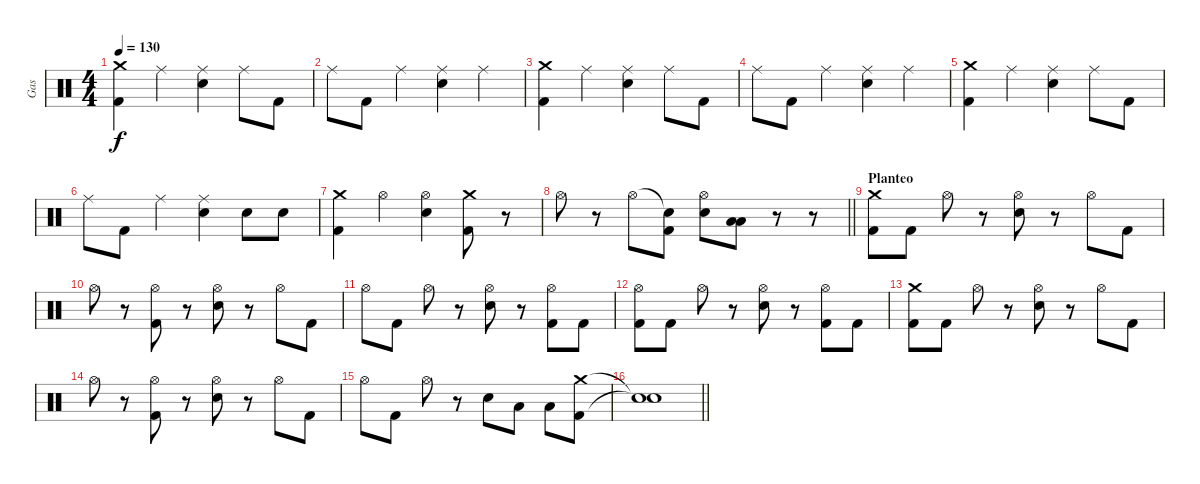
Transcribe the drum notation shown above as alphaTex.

\track ("Gas" "Gas") {instrument percussion}
\staff {score}
\articulation defaults
\ts (4 4)
\tempo 130
\clef neutral
\ks c
("Crash medium (hit)" "Kick (hit) 2").4{dy f} "Ride (middle)".4 ("Ride (middle)" "Electric Snare (hit)").4 "Ride (middle)".8 "Kick (hit) 2".8 |
"Ride (middle)".8 "Kick (hit) 2".8 "Ride (middle)".4 ("Ride (middle)" "Electric Snare (hit)").4 "Ride (middle)".4 |
("Crash medium (hit)" "Kick (hit) 2").4 "Ride (middle)".4 ("Ride (middle)" "Electric Snare (hit)").4 "Ride (middle)".8 "Kick (hit) 2".8 |
"Ride (middle)".8 "Kick (hit) 2".8 "Ride (middle)".4 ("Ride (middle)" "Electric Snare (hit)").4 "Ride (middle)".4 |
("Crash medium (hit)" "Kick (hit) 2").4 "Ride (middle)".4 ("Ride (middle)" "Electric Snare (hit)").4 "Ride (middle)".8 "Kick (hit) 2".8 |
"Ride (middle)".8 "Kick (hit) 2".8 "Ride (middle)".4 ("Ride (middle)" "Electric Snare (hit)").4 "Electric Snare (hit)".8 "Electric Snare (hit)".8 |
("Crash medium (hit)" "Kick (hit) 2").4 "Hi-Hat (open)".4 ("Hi-Hat (open)" "Electric Snare (hit)").4 ("Crash medium (hit)" "Kick (hit) 2").8 r.8 |
\barLineRight lightlight "Hi-Hat (open)".8
r.8 "Hi-Hat (open)".8 ("Snare (hit)"{t} "Kick (hit) 2").8 ("Hi-Hat (open)" "Electric Snare (hit)").8 ("Low Tom (hit)" "Low Tom (hit)").8{bd 60} r.8 r.8 |
\section ("" "Planteo")
("Crash medium (hit)" "Kick (hit) 2").8 "Kick (hit) 2".8 "Hi-Hat (open)".8 r.8 ("Hi-Hat (open)" "Electric Snare (hit)").8 r.8 "Hi-Hat (open)".8 "Kick (hit) 2".8 |
"Hi-Hat (open)".8 r.8 ("Hi-Hat (open)" "Kick (hit) 2").8 r.8 ("Hi-Hat (open)" "Electric Snare (hit)").8 r.8 "Hi-Hat (open)".8 "Kick (hit) 2".8 |
"Hi-Hat (open)".8 "Kick (hit) 2".8 "Hi-Hat (open)".8 r.8 ("Hi-Hat (open)" "Electric Snare (hit)").8 r.8 ("Hi-Hat (open)" "Kick (hit) 2").8 "Kick (hit) 2".8 |
("Hi-Hat (open)" "Kick (hit) 2").8 "Kick (hit) 2".8 "Hi-Hat (open)".8 r.8 ("Hi-Hat (open)" "Electric Snare (hit)").8 r.8 ("Hi-Hat (open)" "Kick (hit) 2").8 "Kick (hit) 2".8 |
("Crash medium (hit)" "Kick (hit) 2").8 "Kick (hit) 2".8 "Hi-Hat (open)".8 r.8 ("Hi-Hat (open)" "Electric Snare (hit)").8 r.8 "Hi-Hat (open)".8 "Kick (hit) 2".8 |
"Hi-Hat (open)".8 r.8 ("Hi-Hat (open)" "Kick (hit) 2").8 r.8 ("Hi-Hat (open)" "Electric Snare (hit)").8 r.8 "Hi-Hat (open)".8 "Kick (hit) 2".8 |
"Hi-Hat (open)".8 "Kick (hit) 2".8 "Hi-Hat (open)".8 r.8 "Electric Snare (hit)".8 "Low Tom (hit)".8 "Low Tom (hit)".8 ("Crash medium (hit)" "Kick (hit) 2").8 |
\barLineRight lightlight
("Snare (hit)"{t} "Snare (hit)"{t}).1
